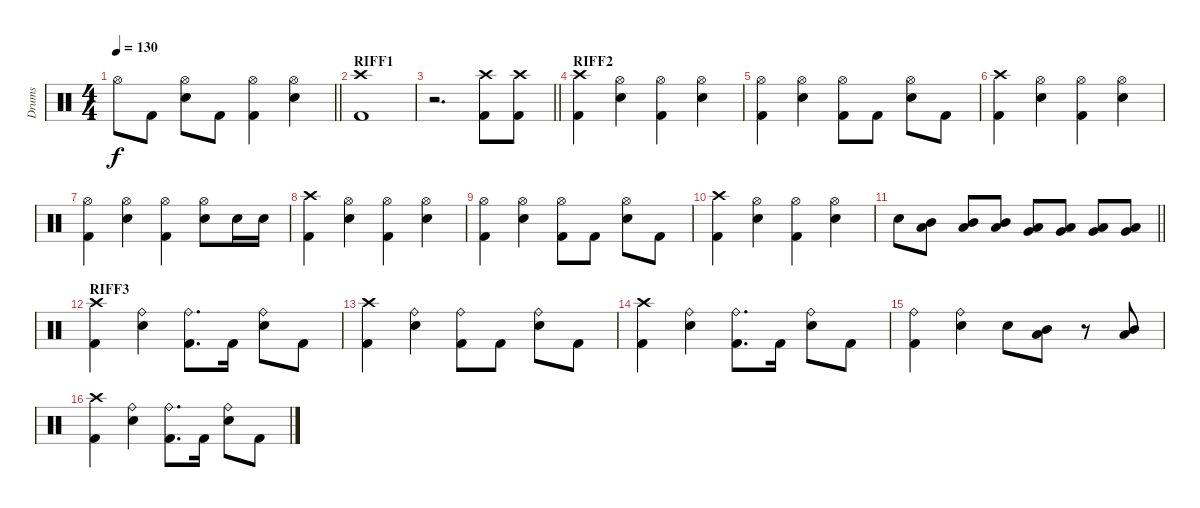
\track ("Drums" "Drums") {instrument percussion}
\staff {score}
\articulation defaults
\ts (4 4)
\tempo 130
\clef neutral
\barLineRight lightlight
\ks c "Hi-Hat (open)".8{dy f} "Kick (hit) 2".8
("Hi-Hat (open)" "Electric Snare (hit)").8 "Kick (hit) 2".8 ("Hi-Hat (open)" "Kick (hit) 2").4 ("Hi-Hat (open)" "Electric Snare (hit)").4 |
\section ("" "RIFF1")
("Crash high (hit)" "Kick (hit) 2").1 |
\barLineRight lightlight
r.2{d} ("Crash high (hit)" "Kick (hit) 2").8 ("Crash high (hit)" "Kick (hit) 2").8 |
\section ("" "RIFF2")
("Crash high (hit)" "Kick (hit) 2").4 ("Hi-Hat (open)" "Electric Snare (hit)").4 ("Hi-Hat (open)" "Kick (hit) 2").4 ("Hi-Hat (open)" "Electric Snare (hit)").4 |
("Hi-Hat (open)" "Kick (hit) 2").4 ("Hi-Hat (open)" "Electric Snare (hit)").4 ("Hi-Hat (open)" "Kick (hit) 2").8 "Kick (hit) 2".8 ("Hi-Hat (open)" "Electric Snare (hit)").8 "Kick (hit) 2".8 |
("Crash high (hit)" "Kick (hit) 2").4 ("Hi-Hat (open)" "Electric Snare (hit)").4 ("Hi-Hat (open)" "Kick (hit) 2").4 ("Hi-Hat (open)" "Electric Snare (hit)").4 |
("Hi-Hat (open)" "Kick (hit) 2").4 ("Hi-Hat (open)" "Electric Snare (hit)").4 ("Hi-Hat (open)" "Kick (hit) 2").4 ("Hi-Hat (open)" "Electric Snare (hit)").8 "Electric Snare (hit)".16 "Electric Snare (hit)".16 |
("Crash high (hit)" "Kick (hit) 2").4 ("Hi-Hat (open)" "Electric Snare (hit)").4 ("Hi-Hat (open)" "Kick (hit) 2").4 ("Hi-Hat (open)" "Electric Snare (hit)").4 |
("Hi-Hat (open)" "Kick (hit) 2").4 ("Hi-Hat (open)" "Electric Snare (hit)").4 ("Hi-Hat (open)" "Kick (hit) 2").8 "Kick (hit) 2".8 ("Hi-Hat (open)" "Electric Snare (hit)").8 "Kick (hit) 2".8 |
("Crash high (hit)" "Kick (hit) 2").4 ("Hi-Hat (open)" "Electric Snare (hit)").4 ("Hi-Hat (open)" "Kick (hit) 2").4 ("Hi-Hat (open)" "Electric Snare (hit)").4 |
\barLineRight lightlight "Electric Snare (hit)".8
("Low Tom (hit)" "Mid Tom (hit)").8 ("Low Tom (hit)" "Mid Tom (hit)").8 ("Low Tom (hit)" "Mid Tom (hit)").8 ("Very Low Tom (hit)" "Low Tom (hit)").8 ("Very Low Tom (hit)" "Low Tom (hit)").8 ("Very Low Tom (hit)" "Low Tom (hit)").8 ("Low Floor Tom (hit)" "Very Low Tom (hit)").8 |
\section ("" "RIFF3")
("Crash high (hit)" "Kick (hit) 2").4 ("Ride (bell)" "Electric Snare (hit)").4 ("Ride (bell)" "Kick (hit) 2").8{d} "Kick (hit) 2".16 ("Ride (bell)" "Electric Snare (hit)").8 "Kick (hit) 2".8 |
("Crash high (hit)" "Kick (hit) 2").4 ("Ride (bell)" "Electric Snare (hit)").4 ("Ride (bell)" "Kick (hit) 2").8 "Kick (hit) 2".8 ("Ride (bell)" "Electric Snare (hit)").8 "Kick (hit) 2".8 |
("Crash high (hit)" "Kick (hit) 2").4 ("Ride (bell)" "Electric Snare (hit)").4 ("Ride (bell)" "Kick (hit) 2").8{d} "Kick (hit) 2".16 ("Ride (bell)" "Electric Snare (hit)").8 "Kick (hit) 2".8 |
("Ride (bell)" "Kick (hit) 2").4 ("Ride (bell)" "Electric Snare (hit)").4 "Electric Snare (hit)".8 ("Mid Tom (hit)" "Low Tom (hit)").8 r.8 ("Mid Tom (hit)" "Low Tom (hit)").8 |
("Crash high (hit)" "Kick (hit) 2").4 ("Ride (bell)" "Electric Snare (hit)").4 ("Ride (bell)" "Kick (hit) 2").8{d} "Kick (hit) 2".16 ("Ride (bell)" "Electric Snare (hit)").8 "Kick (hit) 2".8
